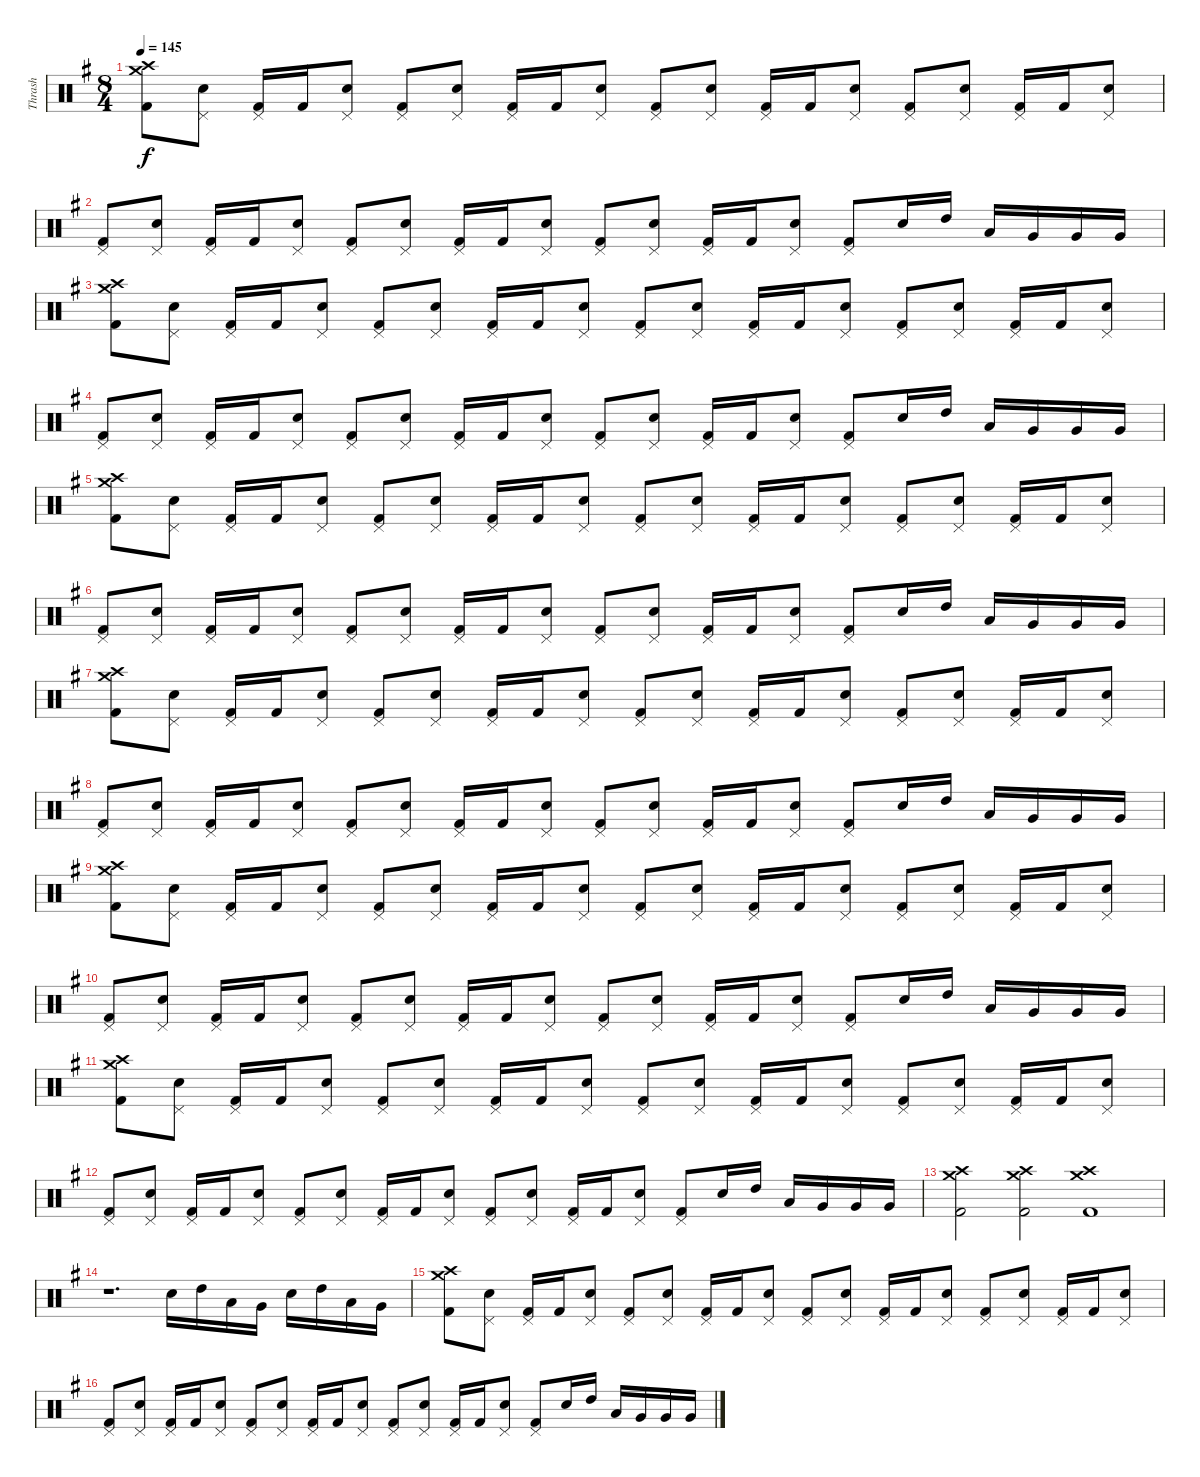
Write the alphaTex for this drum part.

\track ("Thrash" "Thrash") {instrument percussion}
\staff {score}
\articulation defaults
\ts (8 4)
\tempo 145
\clef neutral
\ks eminor
("Crash medium (hit)" "Crash high (hit)" "Kick (hit) 2").8{dy f} ("Pedal Hi-Hat (hit)" "Snare (hit) 2").8 ("Pedal Hi-Hat (hit)" "Kick (hit) 2").16 "Kick (hit) 2".16 ("Pedal Hi-Hat (hit)" "Snare (hit) 2").8 ("Pedal Hi-Hat (hit)" "Kick (hit) 2").8 ("Pedal Hi-Hat (hit)" "Snare (hit) 2").8 ("Pedal Hi-Hat (hit)" "Kick (hit) 2").16 "Kick (hit) 2".16 ("Pedal Hi-Hat (hit)" "Snare (hit) 2").8 ("Pedal Hi-Hat (hit)" "Kick (hit) 2").8 ("Pedal Hi-Hat (hit)" "Snare (hit) 2").8 ("Pedal Hi-Hat (hit)" "Kick (hit) 2").16 "Kick (hit) 2".16 ("Pedal Hi-Hat (hit)" "Snare (hit) 2").8 ("Pedal Hi-Hat (hit)" "Kick (hit) 2").8 ("Pedal Hi-Hat (hit)" "Snare (hit) 2").8 ("Pedal Hi-Hat (hit)" "Kick (hit) 2").16 "Kick (hit) 2".16 ("Pedal Hi-Hat (hit)" "Snare (hit) 2").8 |
("Pedal Hi-Hat (hit)" "Kick (hit) 2").8 ("Pedal Hi-Hat (hit)" "Snare (hit) 2").8 ("Pedal Hi-Hat (hit)" "Kick (hit) 2").16 "Kick (hit) 2".16 ("Pedal Hi-Hat (hit)" "Snare (hit) 2").8 ("Pedal Hi-Hat (hit)" "Kick (hit) 2").8 ("Pedal Hi-Hat (hit)" "Snare (hit) 2").8 ("Pedal Hi-Hat (hit)" "Kick (hit) 2").16 "Kick (hit) 2".16 ("Pedal Hi-Hat (hit)" "Snare (hit) 2").8 ("Pedal Hi-Hat (hit)" "Kick (hit) 2").8 ("Pedal Hi-Hat (hit)" "Snare (hit) 2").8 ("Pedal Hi-Hat (hit)" "Kick (hit) 2").16 "Kick (hit) 2".16 ("Pedal Hi-Hat (hit)" "Snare (hit) 2").8 ("Pedal Hi-Hat (hit)" "Kick (hit) 2").8 "Snare (hit) 2".16 "High Tom (hit)".16 "Low Tom (hit)".16 "Very Low Tom (hit)".16 "Very Low Tom (hit)".16 "Very Low Tom (hit)".16 |
("Crash medium (hit)" "Crash high (hit)" "Kick (hit) 2").8 ("Pedal Hi-Hat (hit)" "Snare (hit) 2").8 ("Pedal Hi-Hat (hit)" "Kick (hit) 2").16 "Kick (hit) 2".16 ("Pedal Hi-Hat (hit)" "Snare (hit) 2").8 ("Pedal Hi-Hat (hit)" "Kick (hit) 2").8 ("Pedal Hi-Hat (hit)" "Snare (hit) 2").8 ("Pedal Hi-Hat (hit)" "Kick (hit) 2").16 "Kick (hit) 2".16 ("Pedal Hi-Hat (hit)" "Snare (hit) 2").8 ("Pedal Hi-Hat (hit)" "Kick (hit) 2").8 ("Pedal Hi-Hat (hit)" "Snare (hit) 2").8 ("Pedal Hi-Hat (hit)" "Kick (hit) 2").16 "Kick (hit) 2".16 ("Pedal Hi-Hat (hit)" "Snare (hit) 2").8 ("Pedal Hi-Hat (hit)" "Kick (hit) 2").8 ("Pedal Hi-Hat (hit)" "Snare (hit) 2").8 ("Pedal Hi-Hat (hit)" "Kick (hit) 2").16 "Kick (hit) 2".16 ("Pedal Hi-Hat (hit)" "Snare (hit) 2").8 |
("Pedal Hi-Hat (hit)" "Kick (hit) 2").8 ("Pedal Hi-Hat (hit)" "Snare (hit) 2").8 ("Pedal Hi-Hat (hit)" "Kick (hit) 2").16 "Kick (hit) 2".16 ("Pedal Hi-Hat (hit)" "Snare (hit) 2").8 ("Pedal Hi-Hat (hit)" "Kick (hit) 2").8 ("Pedal Hi-Hat (hit)" "Snare (hit) 2").8 ("Pedal Hi-Hat (hit)" "Kick (hit) 2").16 "Kick (hit) 2".16 ("Pedal Hi-Hat (hit)" "Snare (hit) 2").8 ("Pedal Hi-Hat (hit)" "Kick (hit) 2").8 ("Pedal Hi-Hat (hit)" "Snare (hit) 2").8 ("Pedal Hi-Hat (hit)" "Kick (hit) 2").16 "Kick (hit) 2".16 ("Pedal Hi-Hat (hit)" "Snare (hit) 2").8 ("Pedal Hi-Hat (hit)" "Kick (hit) 2").8 "Snare (hit) 2".16 "High Tom (hit)".16 "Low Tom (hit)".16 "Very Low Tom (hit)".16 "Very Low Tom (hit)".16 "Very Low Tom (hit)".16 |
("Crash medium (hit)" "Crash high (hit)" "Kick (hit) 2").8 ("Pedal Hi-Hat (hit)" "Snare (hit) 2").8 ("Pedal Hi-Hat (hit)" "Kick (hit) 2").16 "Kick (hit) 2".16 ("Pedal Hi-Hat (hit)" "Snare (hit) 2").8 ("Pedal Hi-Hat (hit)" "Kick (hit) 2").8 ("Pedal Hi-Hat (hit)" "Snare (hit) 2").8 ("Pedal Hi-Hat (hit)" "Kick (hit) 2").16 "Kick (hit) 2".16 ("Pedal Hi-Hat (hit)" "Snare (hit) 2").8 ("Pedal Hi-Hat (hit)" "Kick (hit) 2").8 ("Pedal Hi-Hat (hit)" "Snare (hit) 2").8 ("Pedal Hi-Hat (hit)" "Kick (hit) 2").16 "Kick (hit) 2".16 ("Pedal Hi-Hat (hit)" "Snare (hit) 2").8 ("Pedal Hi-Hat (hit)" "Kick (hit) 2").8 ("Pedal Hi-Hat (hit)" "Snare (hit) 2").8 ("Pedal Hi-Hat (hit)" "Kick (hit) 2").16 "Kick (hit) 2".16 ("Pedal Hi-Hat (hit)" "Snare (hit) 2").8 |
("Pedal Hi-Hat (hit)" "Kick (hit) 2").8 ("Pedal Hi-Hat (hit)" "Snare (hit) 2").8 ("Pedal Hi-Hat (hit)" "Kick (hit) 2").16 "Kick (hit) 2".16 ("Pedal Hi-Hat (hit)" "Snare (hit) 2").8 ("Pedal Hi-Hat (hit)" "Kick (hit) 2").8 ("Pedal Hi-Hat (hit)" "Snare (hit) 2").8 ("Pedal Hi-Hat (hit)" "Kick (hit) 2").16 "Kick (hit) 2".16 ("Pedal Hi-Hat (hit)" "Snare (hit) 2").8 ("Pedal Hi-Hat (hit)" "Kick (hit) 2").8 ("Pedal Hi-Hat (hit)" "Snare (hit) 2").8 ("Pedal Hi-Hat (hit)" "Kick (hit) 2").16 "Kick (hit) 2".16 ("Pedal Hi-Hat (hit)" "Snare (hit) 2").8 ("Pedal Hi-Hat (hit)" "Kick (hit) 2").8 "Snare (hit) 2".16 "High Tom (hit)".16 "Low Tom (hit)".16 "Very Low Tom (hit)".16 "Very Low Tom (hit)".16 "Very Low Tom (hit)".16 |
("Crash medium (hit)" "Crash high (hit)" "Kick (hit) 2").8 ("Pedal Hi-Hat (hit)" "Snare (hit) 2").8 ("Pedal Hi-Hat (hit)" "Kick (hit) 2").16 "Kick (hit) 2".16 ("Pedal Hi-Hat (hit)" "Snare (hit) 2").8 ("Pedal Hi-Hat (hit)" "Kick (hit) 2").8 ("Pedal Hi-Hat (hit)" "Snare (hit) 2").8 ("Pedal Hi-Hat (hit)" "Kick (hit) 2").16 "Kick (hit) 2".16 ("Pedal Hi-Hat (hit)" "Snare (hit) 2").8 ("Pedal Hi-Hat (hit)" "Kick (hit) 2").8 ("Pedal Hi-Hat (hit)" "Snare (hit) 2").8 ("Pedal Hi-Hat (hit)" "Kick (hit) 2").16 "Kick (hit) 2".16 ("Pedal Hi-Hat (hit)" "Snare (hit) 2").8 ("Pedal Hi-Hat (hit)" "Kick (hit) 2").8 ("Pedal Hi-Hat (hit)" "Snare (hit) 2").8 ("Pedal Hi-Hat (hit)" "Kick (hit) 2").16 "Kick (hit) 2".16 ("Pedal Hi-Hat (hit)" "Snare (hit) 2").8 |
("Pedal Hi-Hat (hit)" "Kick (hit) 2").8 ("Pedal Hi-Hat (hit)" "Snare (hit) 2").8 ("Pedal Hi-Hat (hit)" "Kick (hit) 2").16 "Kick (hit) 2".16 ("Pedal Hi-Hat (hit)" "Snare (hit) 2").8 ("Pedal Hi-Hat (hit)" "Kick (hit) 2").8 ("Pedal Hi-Hat (hit)" "Snare (hit) 2").8 ("Pedal Hi-Hat (hit)" "Kick (hit) 2").16 "Kick (hit) 2".16 ("Pedal Hi-Hat (hit)" "Snare (hit) 2").8 ("Pedal Hi-Hat (hit)" "Kick (hit) 2").8 ("Pedal Hi-Hat (hit)" "Snare (hit) 2").8 ("Pedal Hi-Hat (hit)" "Kick (hit) 2").16 "Kick (hit) 2".16 ("Pedal Hi-Hat (hit)" "Snare (hit) 2").8 ("Pedal Hi-Hat (hit)" "Kick (hit) 2").8 "Snare (hit) 2".16 "High Tom (hit)".16 "Low Tom (hit)".16 "Very Low Tom (hit)".16 "Very Low Tom (hit)".16 "Very Low Tom (hit)".16 |
("Crash medium (hit)" "Crash high (hit)" "Kick (hit) 2").8 ("Pedal Hi-Hat (hit)" "Snare (hit) 2").8 ("Pedal Hi-Hat (hit)" "Kick (hit) 2").16 "Kick (hit) 2".16 ("Pedal Hi-Hat (hit)" "Snare (hit) 2").8 ("Pedal Hi-Hat (hit)" "Kick (hit) 2").8 ("Pedal Hi-Hat (hit)" "Snare (hit) 2").8 ("Pedal Hi-Hat (hit)" "Kick (hit) 2").16 "Kick (hit) 2".16 ("Pedal Hi-Hat (hit)" "Snare (hit) 2").8 ("Pedal Hi-Hat (hit)" "Kick (hit) 2").8 ("Pedal Hi-Hat (hit)" "Snare (hit) 2").8 ("Pedal Hi-Hat (hit)" "Kick (hit) 2").16 "Kick (hit) 2".16 ("Pedal Hi-Hat (hit)" "Snare (hit) 2").8 ("Pedal Hi-Hat (hit)" "Kick (hit) 2").8 ("Pedal Hi-Hat (hit)" "Snare (hit) 2").8 ("Pedal Hi-Hat (hit)" "Kick (hit) 2").16 "Kick (hit) 2".16 ("Pedal Hi-Hat (hit)" "Snare (hit) 2").8 |
("Pedal Hi-Hat (hit)" "Kick (hit) 2").8 ("Pedal Hi-Hat (hit)" "Snare (hit) 2").8 ("Pedal Hi-Hat (hit)" "Kick (hit) 2").16 "Kick (hit) 2".16 ("Pedal Hi-Hat (hit)" "Snare (hit) 2").8 ("Pedal Hi-Hat (hit)" "Kick (hit) 2").8 ("Pedal Hi-Hat (hit)" "Snare (hit) 2").8 ("Pedal Hi-Hat (hit)" "Kick (hit) 2").16 "Kick (hit) 2".16 ("Pedal Hi-Hat (hit)" "Snare (hit) 2").8 ("Pedal Hi-Hat (hit)" "Kick (hit) 2").8 ("Pedal Hi-Hat (hit)" "Snare (hit) 2").8 ("Pedal Hi-Hat (hit)" "Kick (hit) 2").16 "Kick (hit) 2".16 ("Pedal Hi-Hat (hit)" "Snare (hit) 2").8 ("Pedal Hi-Hat (hit)" "Kick (hit) 2").8 "Snare (hit) 2".16 "High Tom (hit)".16 "Low Tom (hit)".16 "Very Low Tom (hit)".16 "Very Low Tom (hit)".16 "Very Low Tom (hit)".16 |
("Crash medium (hit)" "Crash high (hit)" "Kick (hit) 2").8 ("Pedal Hi-Hat (hit)" "Snare (hit) 2").8 ("Pedal Hi-Hat (hit)" "Kick (hit) 2").16 "Kick (hit) 2".16 ("Pedal Hi-Hat (hit)" "Snare (hit) 2").8 ("Pedal Hi-Hat (hit)" "Kick (hit) 2").8 ("Pedal Hi-Hat (hit)" "Snare (hit) 2").8 ("Pedal Hi-Hat (hit)" "Kick (hit) 2").16 "Kick (hit) 2".16 ("Pedal Hi-Hat (hit)" "Snare (hit) 2").8 ("Pedal Hi-Hat (hit)" "Kick (hit) 2").8 ("Pedal Hi-Hat (hit)" "Snare (hit) 2").8 ("Pedal Hi-Hat (hit)" "Kick (hit) 2").16 "Kick (hit) 2".16 ("Pedal Hi-Hat (hit)" "Snare (hit) 2").8 ("Pedal Hi-Hat (hit)" "Kick (hit) 2").8 ("Pedal Hi-Hat (hit)" "Snare (hit) 2").8 ("Pedal Hi-Hat (hit)" "Kick (hit) 2").16 "Kick (hit) 2".16 ("Pedal Hi-Hat (hit)" "Snare (hit) 2").8 |
("Pedal Hi-Hat (hit)" "Kick (hit) 2").8 ("Pedal Hi-Hat (hit)" "Snare (hit) 2").8 ("Pedal Hi-Hat (hit)" "Kick (hit) 2").16 "Kick (hit) 2".16 ("Pedal Hi-Hat (hit)" "Snare (hit) 2").8 ("Pedal Hi-Hat (hit)" "Kick (hit) 2").8 ("Pedal Hi-Hat (hit)" "Snare (hit) 2").8 ("Pedal Hi-Hat (hit)" "Kick (hit) 2").16 "Kick (hit) 2".16 ("Pedal Hi-Hat (hit)" "Snare (hit) 2").8 ("Pedal Hi-Hat (hit)" "Kick (hit) 2").8 ("Pedal Hi-Hat (hit)" "Snare (hit) 2").8 ("Pedal Hi-Hat (hit)" "Kick (hit) 2").16 "Kick (hit) 2".16 ("Pedal Hi-Hat (hit)" "Snare (hit) 2").8 ("Pedal Hi-Hat (hit)" "Kick (hit) 2").8 "Snare (hit) 2".16 "High Tom (hit)".16 "Low Tom (hit)".16 "Very Low Tom (hit)".16 "Very Low Tom (hit)".16 "Very Low Tom (hit)".16 |
("Crash medium (hit)" "Crash high (hit)" "Kick (hit) 2").2 ("Crash medium (hit)" "Crash high (hit)" "Kick (hit) 2").2 ("Crash medium (hit)" "Crash high (hit)" "Kick (hit) 2").1 |
r.1{d} "Snare (hit) 2".16 "High Tom (hit)".16 "Low Tom (hit)".16 "Very Low Tom (hit)".16 "Snare (hit) 2".16 "High Tom (hit)".16 "Low Tom (hit)".16 "Very Low Tom (hit)".16 |
("Crash medium (hit)" "Crash high (hit)" "Kick (hit) 2").8 ("Pedal Hi-Hat (hit)" "Snare (hit) 2").8 ("Pedal Hi-Hat (hit)" "Kick (hit) 2").16 "Kick (hit) 2".16 ("Pedal Hi-Hat (hit)" "Snare (hit) 2").8 ("Pedal Hi-Hat (hit)" "Kick (hit) 2").8 ("Pedal Hi-Hat (hit)" "Snare (hit) 2").8 ("Pedal Hi-Hat (hit)" "Kick (hit) 2").16 "Kick (hit) 2".16 ("Pedal Hi-Hat (hit)" "Snare (hit) 2").8 ("Pedal Hi-Hat (hit)" "Kick (hit) 2").8 ("Pedal Hi-Hat (hit)" "Snare (hit) 2").8 ("Pedal Hi-Hat (hit)" "Kick (hit) 2").16 "Kick (hit) 2".16 ("Pedal Hi-Hat (hit)" "Snare (hit) 2").8 ("Pedal Hi-Hat (hit)" "Kick (hit) 2").8 ("Pedal Hi-Hat (hit)" "Snare (hit) 2").8 ("Pedal Hi-Hat (hit)" "Kick (hit) 2").16 "Kick (hit) 2".16 ("Pedal Hi-Hat (hit)" "Snare (hit) 2").8 |
("Pedal Hi-Hat (hit)" "Kick (hit) 2").8 ("Pedal Hi-Hat (hit)" "Snare (hit) 2").8 ("Pedal Hi-Hat (hit)" "Kick (hit) 2").16 "Kick (hit) 2".16 ("Pedal Hi-Hat (hit)" "Snare (hit) 2").8 ("Pedal Hi-Hat (hit)" "Kick (hit) 2").8 ("Pedal Hi-Hat (hit)" "Snare (hit) 2").8 ("Pedal Hi-Hat (hit)" "Kick (hit) 2").16 "Kick (hit) 2".16 ("Pedal Hi-Hat (hit)" "Snare (hit) 2").8 ("Pedal Hi-Hat (hit)" "Kick (hit) 2").8 ("Pedal Hi-Hat (hit)" "Snare (hit) 2").8 ("Pedal Hi-Hat (hit)" "Kick (hit) 2").16 "Kick (hit) 2".16 ("Pedal Hi-Hat (hit)" "Snare (hit) 2").8 ("Pedal Hi-Hat (hit)" "Kick (hit) 2").8 "Snare (hit) 2".16 "High Tom (hit)".16 "Low Tom (hit)".16 "Very Low Tom (hit)".16 "Very Low Tom (hit)".16 "Very Low Tom (hit)".16
